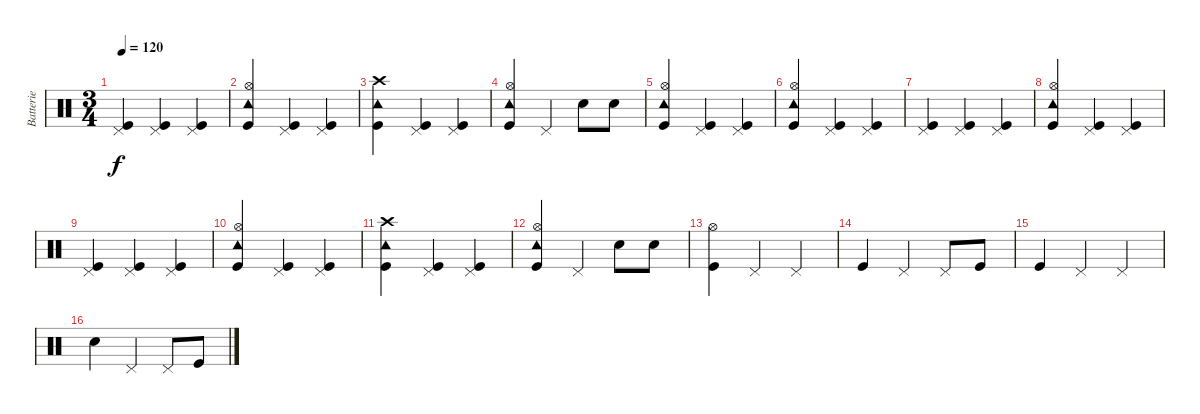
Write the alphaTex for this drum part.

\track ("Batterie" "Batterie") {instrument percussion}
\staff {score}
\articulation defaults
\ts (3 4)
\tempo 120
\clef neutral
\ks c
("Pedal Hi-Hat (hit)" "Kick (hit)").4{dy f} ("Pedal Hi-Hat (hit)" "Kick (hit)").4 ("Pedal Hi-Hat (hit)" "Kick (hit)").4 |
("Hi-Hat (open)" "Tambourine (hit)" "Kick (hit)").4 ("Pedal Hi-Hat (hit)" "Kick (hit)").4 ("Pedal Hi-Hat (hit)" "Kick (hit)").4 |
("Crash high (hit)" "Tambourine (hit)" "Kick (hit)").4 ("Pedal Hi-Hat (hit)" "Kick (hit)").4 ("Pedal Hi-Hat (hit)" "Kick (hit)").4 |
("Hi-Hat (open)" "Tambourine (hit)" "Kick (hit)").4 "Pedal Hi-Hat (hit)".4 "Snare (hit) 2".8 "Snare (hit) 2".8 |
("Hi-Hat (open)" "Tambourine (hit)" "Kick (hit)").4 ("Pedal Hi-Hat (hit)" "Kick (hit)").4 ("Pedal Hi-Hat (hit)" "Kick (hit)").4 |
("Hi-Hat (open)" "Tambourine (hit)" "Kick (hit)").4 ("Pedal Hi-Hat (hit)" "Kick (hit)").4 ("Pedal Hi-Hat (hit)" "Kick (hit)").4 |
("Pedal Hi-Hat (hit)" "Kick (hit)").4 ("Pedal Hi-Hat (hit)" "Kick (hit)").4 ("Pedal Hi-Hat (hit)" "Kick (hit)").4 |
("Hi-Hat (open)" "Tambourine (hit)" "Kick (hit)").4 ("Pedal Hi-Hat (hit)" "Kick (hit)").4 ("Pedal Hi-Hat (hit)" "Kick (hit)").4 |
("Pedal Hi-Hat (hit)" "Kick (hit)").4 ("Pedal Hi-Hat (hit)" "Kick (hit)").4 ("Pedal Hi-Hat (hit)" "Kick (hit)").4 |
("Hi-Hat (open)" "Tambourine (hit)" "Kick (hit)").4 ("Pedal Hi-Hat (hit)" "Kick (hit)").4 ("Pedal Hi-Hat (hit)" "Kick (hit)").4 |
("Crash high (hit)" "Tambourine (hit)" "Kick (hit)").4 ("Pedal Hi-Hat (hit)" "Kick (hit)").4 ("Pedal Hi-Hat (hit)" "Kick (hit)").4 |
("Hi-Hat (open)" "Tambourine (hit)" "Kick (hit)").4 "Pedal Hi-Hat (hit)".4 "Snare (hit) 2".8 "Snare (hit) 2".8 |
("Hi-Hat (open)" "Kick (hit)").4 "Pedal Hi-Hat (hit)".4 "Pedal Hi-Hat (hit)".4 |
"Kick (hit)".4 "Pedal Hi-Hat (hit)".4 "Pedal Hi-Hat (hit)".8 "Kick (hit)".8 |
"Kick (hit)".4 "Pedal Hi-Hat (hit)".4 "Pedal Hi-Hat (hit)".4 |
"Snare (hit) 2".4 "Pedal Hi-Hat (hit)".4 "Pedal Hi-Hat (hit)".8 "Kick (hit)".8
